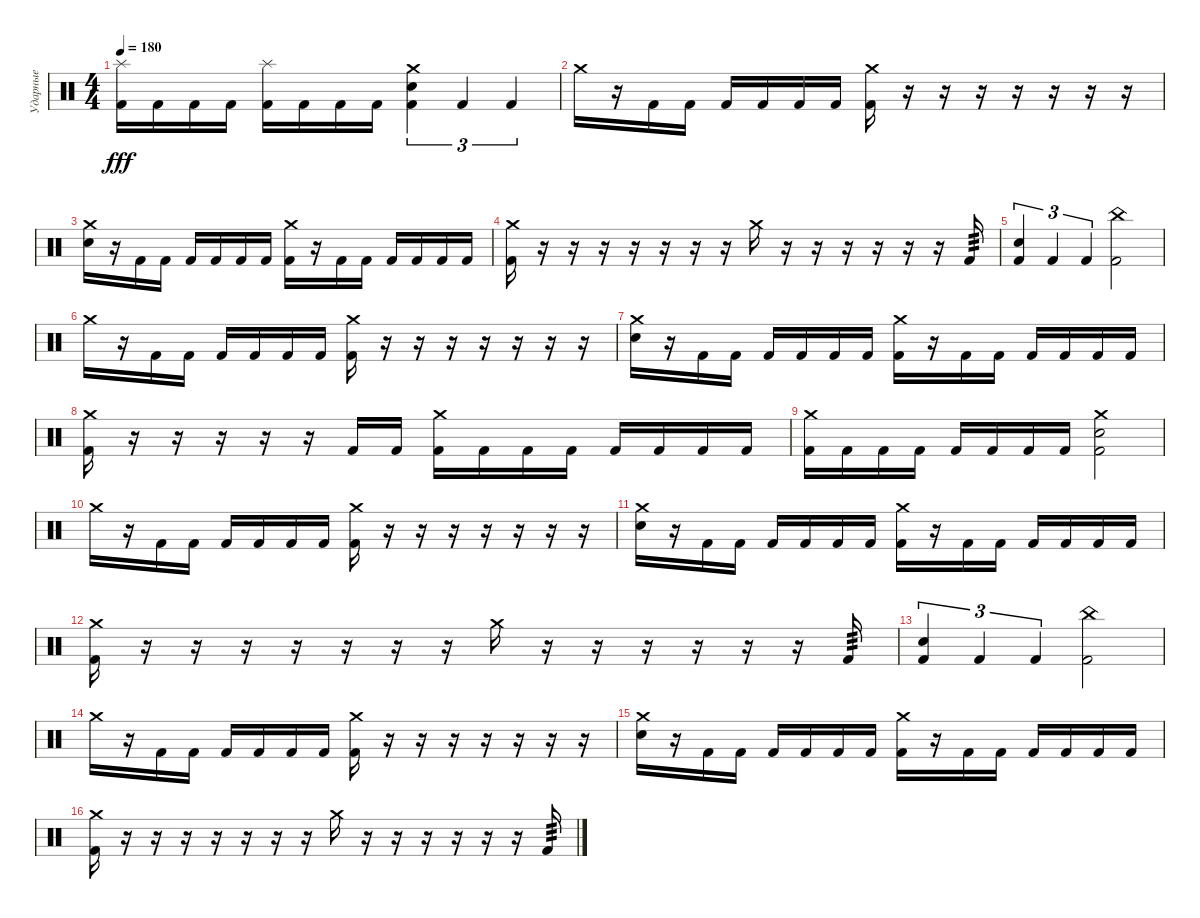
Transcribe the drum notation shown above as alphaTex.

\track ("Ударные" "Ударные") {instrument percussion}
\staff {score}
\articulation defaults
\ts (4 4)
\tempo 180
\clef neutral
\ks c
("Kick (hit) 2" "Splash (hit)").16{dy fff} "Kick (hit) 2".16 "Kick (hit) 2".16 "Kick (hit) 2".16 ("Kick (hit) 2" "Splash (hit)").16 "Kick (hit) 2".16 "Kick (hit) 2".16 "Kick (hit) 2".16 ("Kick (hit) 2" "Electric Snare (hit)" "Crash medium (hit)").4{tu (3 2)} "Kick (hit) 2".4{tu (3 2)} "Kick (hit) 2".4{tu (3 2)} |
"Crash medium (hit)".16 r.16 "Kick (hit) 2".16 "Kick (hit) 2".16 "Kick (hit) 2".16 "Kick (hit) 2".16 "Kick (hit) 2".16 "Kick (hit) 2".16 ("Kick (hit) 2" "Crash medium (hit)").16 r.16 r.16 r.16 r.16 r.16 r.16 r.16 |
("Electric Snare (hit)" "Crash medium (hit)").16 r.16 "Kick (hit) 2".16 "Kick (hit) 2".16 "Kick (hit) 2".16 "Kick (hit) 2".16 "Kick (hit) 2".16 "Kick (hit) 2".16 ("Crash medium (hit)" "Kick (hit) 2").16 r.16 "Kick (hit) 2".16 "Kick (hit) 2".16 "Kick (hit) 2".16 "Kick (hit) 2".16 "Kick (hit) 2".16 "Kick (hit) 2".16 |
("Crash medium (hit)" "Kick (hit) 2").16 r.16 r.16 r.16 r.16 r.16 r.16 r.16 "Crash medium (hit)".16 r.16 r.16 r.16 r.16 r.16 r.16 "Kick (hit) 2".16{tp 3} |
("Kick (hit) 2" "Electric Snare (hit)").4{tu (3 2)} "Kick (hit) 2".4{tu (3 2)} "Kick (hit) 2".4{tu (3 2)} ("China (hit)" "Kick (hit) 2").2 |
"Crash medium (hit)".16 r.16 "Kick (hit) 2".16 "Kick (hit) 2".16 "Kick (hit) 2".16 "Kick (hit) 2".16 "Kick (hit) 2".16 "Kick (hit) 2".16 ("Kick (hit) 2" "Crash medium (hit)").16 r.16 r.16 r.16 r.16 r.16 r.16 r.16 |
("Electric Snare (hit)" "Crash medium (hit)").16 r.16 "Kick (hit) 2".16 "Kick (hit) 2".16 "Kick (hit) 2".16 "Kick (hit) 2".16 "Kick (hit) 2".16 "Kick (hit) 2".16 ("Crash medium (hit)" "Kick (hit) 2").16 r.16 "Kick (hit) 2".16 "Kick (hit) 2".16 "Kick (hit) 2".16 "Kick (hit) 2".16 "Kick (hit) 2".16 "Kick (hit) 2".16 |
("Crash medium (hit)" "Kick (hit) 2").16 r.16 r.16 r.16 r.16 r.16 "Kick (hit) 2".16 "Kick (hit) 2".16 ("Crash medium (hit)" "Kick (hit) 2").16 "Kick (hit) 2".16 "Kick (hit) 2".16 "Kick (hit) 2".16 "Kick (hit) 2".16 "Kick (hit) 2".16 "Kick (hit) 2".16 "Kick (hit) 2".16 |
("Crash medium (hit)" "Kick (hit) 2").16 "Kick (hit) 2".16 "Kick (hit) 2".16 "Kick (hit) 2".16 "Kick (hit) 2".16 "Kick (hit) 2".16 "Kick (hit) 2".16 "Kick (hit) 2".16 ("Electric Snare (hit)" "Crash medium (hit)" "Kick (hit) 2").2 |
"Crash medium (hit)".16 r.16 "Kick (hit) 2".16 "Kick (hit) 2".16 "Kick (hit) 2".16 "Kick (hit) 2".16 "Kick (hit) 2".16 "Kick (hit) 2".16 ("Kick (hit) 2" "Crash medium (hit)").16 r.16 r.16 r.16 r.16 r.16 r.16 r.16 |
("Electric Snare (hit)" "Crash medium (hit)").16 r.16 "Kick (hit) 2".16 "Kick (hit) 2".16 "Kick (hit) 2".16 "Kick (hit) 2".16 "Kick (hit) 2".16 "Kick (hit) 2".16 ("Crash medium (hit)" "Kick (hit) 2").16 r.16 "Kick (hit) 2".16 "Kick (hit) 2".16 "Kick (hit) 2".16 "Kick (hit) 2".16 "Kick (hit) 2".16 "Kick (hit) 2".16 |
("Crash medium (hit)" "Kick (hit) 2").16 r.16 r.16 r.16 r.16 r.16 r.16 r.16 "Crash medium (hit)".16 r.16 r.16 r.16 r.16 r.16 r.16 "Kick (hit) 2".16{tp 3} |
("Kick (hit) 2" "Electric Snare (hit)").4{tu (3 2)} "Kick (hit) 2".4{tu (3 2)} "Kick (hit) 2".4{tu (3 2)} ("China (hit)" "Kick (hit) 2").2 |
"Crash medium (hit)".16 r.16 "Kick (hit) 2".16 "Kick (hit) 2".16 "Kick (hit) 2".16 "Kick (hit) 2".16 "Kick (hit) 2".16 "Kick (hit) 2".16 ("Kick (hit) 2" "Crash medium (hit)").16 r.16 r.16 r.16 r.16 r.16 r.16 r.16 |
("Electric Snare (hit)" "Crash medium (hit)").16 r.16 "Kick (hit) 2".16 "Kick (hit) 2".16 "Kick (hit) 2".16 "Kick (hit) 2".16 "Kick (hit) 2".16 "Kick (hit) 2".16 ("Crash medium (hit)" "Kick (hit) 2").16 r.16 "Kick (hit) 2".16 "Kick (hit) 2".16 "Kick (hit) 2".16 "Kick (hit) 2".16 "Kick (hit) 2".16 "Kick (hit) 2".16 |
("Crash medium (hit)" "Kick (hit) 2").16 r.16 r.16 r.16 r.16 r.16 r.16 r.16 "Crash medium (hit)".16 r.16 r.16 r.16 r.16 r.16 r.16 "Kick (hit) 2".16{tp 3}
